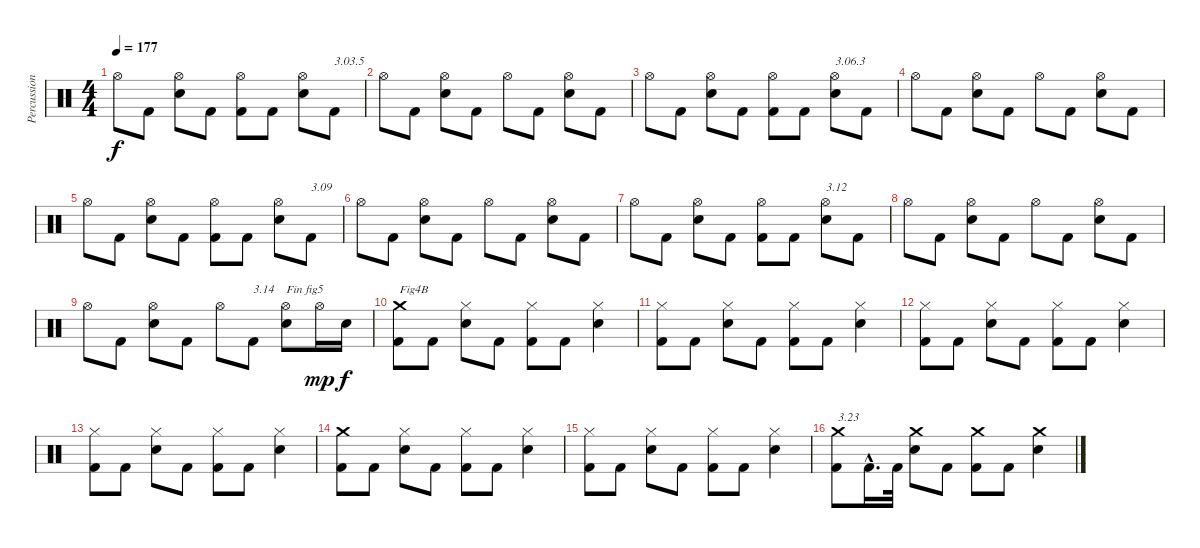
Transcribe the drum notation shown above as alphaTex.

\track ("Percussions" "Percussion") {instrument percussion}
\staff {score}
\articulation defaults
\ts (4 4)
\tempo 177
\clef neutral
\ks c "Hi-Hat (open)".8{dy f} "Kick (hit) 2".8
("Electric Snare (hit)" "Hi-Hat (open)").8 "Kick (hit) 2".8 ("Kick (hit) 2" "Hi-Hat (open)").8 "Kick (hit) 2".8 ("Electric Snare (hit)" "Hi-Hat (open)").8 "Kick (hit) 2".8{txt "3.03.5"} |
"Hi-Hat (open)".8 "Kick (hit) 2".8 ("Electric Snare (hit)" "Hi-Hat (open)").8 "Kick (hit) 2".8 "Hi-Hat (open)".8 "Kick (hit) 2".8 ("Electric Snare (hit)" "Hi-Hat (open)").8 "Kick (hit) 2".8 |
"Hi-Hat (open)".8 "Kick (hit) 2".8 ("Electric Snare (hit)" "Hi-Hat (open)").8 "Kick (hit) 2".8 ("Kick (hit) 2" "Hi-Hat (open)").8 "Kick (hit) 2".8 ("Electric Snare (hit)" "Hi-Hat (open)").8{txt "3.06.3"} "Kick (hit) 2".8 |
"Hi-Hat (open)".8 "Kick (hit) 2".8 ("Electric Snare (hit)" "Hi-Hat (open)").8 "Kick (hit) 2".8 "Hi-Hat (open)".8 "Kick (hit) 2".8 ("Electric Snare (hit)" "Hi-Hat (open)").8 "Kick (hit) 2".8 |
"Hi-Hat (open)".8 "Kick (hit) 2".8 ("Electric Snare (hit)" "Hi-Hat (open)").8 "Kick (hit) 2".8 ("Kick (hit) 2" "Hi-Hat (open)").8 "Kick (hit) 2".8 ("Electric Snare (hit)" "Hi-Hat (open)").8 "Kick (hit) 2".8{txt "3.09"} |
"Hi-Hat (open)".8 "Kick (hit) 2".8 ("Electric Snare (hit)" "Hi-Hat (open)").8 "Kick (hit) 2".8 "Hi-Hat (open)".8 "Kick (hit) 2".8 ("Electric Snare (hit)" "Hi-Hat (open)").8 "Kick (hit) 2".8 |
"Hi-Hat (open)".8 "Kick (hit) 2".8 ("Electric Snare (hit)" "Hi-Hat (open)").8 "Kick (hit) 2".8 ("Kick (hit) 2" "Hi-Hat (open)").8 "Kick (hit) 2".8 ("Electric Snare (hit)" "Hi-Hat (open)").8{txt "3.12"} "Kick (hit) 2".8 |
"Hi-Hat (open)".8 "Kick (hit) 2".8 ("Electric Snare (hit)" "Hi-Hat (open)").8 "Kick (hit) 2".8 "Hi-Hat (open)".8 "Kick (hit) 2".8 ("Electric Snare (hit)" "Hi-Hat (open)").8 "Kick (hit) 2".8 |
"Hi-Hat (open)".8 "Kick (hit) 2".8 ("Electric Snare (hit)" "Hi-Hat (open)").8 "Kick (hit) 2".8 "Hi-Hat (open)".8 "Kick (hit) 2".8{txt "3.14"} ("Electric Snare (hit)" "Hi-Hat (open)").8{txt "Fin fig5"} "Hi-Hat (open)".16{dy mp} "Electric Snare (hit)".16{dy f} |
("Kick (hit) 2" "Crash medium (hit)").8{txt "Fig4B"} "Kick (hit) 2".8 ("Electric Snare (hit)" "Hi-Hat (closed)").8 "Kick (hit) 2".8 ("Kick (hit) 2" "Hi-Hat (closed)").8 "Kick (hit) 2".8 ("Electric Snare (hit)" "Hi-Hat (closed)").4 |
("Kick (hit) 2" "Hi-Hat (closed)").8 "Kick (hit) 2".8 ("Electric Snare (hit)" "Hi-Hat (closed)").8 "Kick (hit) 2".8 ("Kick (hit) 2" "Hi-Hat (closed)").8 "Kick (hit) 2".8 ("Electric Snare (hit)" "Hi-Hat (closed)").4 |
("Kick (hit) 2" "Hi-Hat (closed)").8 "Kick (hit) 2".8 ("Electric Snare (hit)" "Hi-Hat (closed)").8 "Kick (hit) 2".8 ("Kick (hit) 2" "Hi-Hat (closed)").8 "Kick (hit) 2".8 ("Electric Snare (hit)" "Hi-Hat (closed)").4 |
("Kick (hit) 2" "Hi-Hat (closed)").8 "Kick (hit) 2".8 ("Electric Snare (hit)" "Hi-Hat (closed)").8 "Kick (hit) 2".8 ("Kick (hit) 2" "Hi-Hat (closed)").8 "Kick (hit) 2".8 ("Electric Snare (hit)" "Hi-Hat (closed)").4 |
("Kick (hit) 2" "Crash medium (hit)").8 "Kick (hit) 2".8 ("Electric Snare (hit)" "Hi-Hat (closed)").8 "Kick (hit) 2".8 ("Kick (hit) 2" "Hi-Hat (closed)").8 "Kick (hit) 2".8 ("Electric Snare (hit)" "Hi-Hat (closed)").4 |
("Kick (hit) 2" "Hi-Hat (closed)").8 "Kick (hit) 2".8 ("Electric Snare (hit)" "Hi-Hat (closed)").8 "Kick (hit) 2".8 ("Kick (hit) 2" "Hi-Hat (closed)").8 "Kick (hit) 2".8 ("Electric Snare (hit)" "Hi-Hat (closed)").4 |
("Kick (hit) 2" "Crash medium (hit)").8{txt "3.23"} "Kick (hit) 2"{hac}.16{d} "Kick (hit) 2".32 ("Electric Snare (hit)" "Crash medium (hit)").8 "Kick (hit) 2".8 ("Kick (hit) 2" "Crash medium (hit)").8 "Kick (hit) 2".8 ("Electric Snare (hit)" "Crash medium (hit)").4
